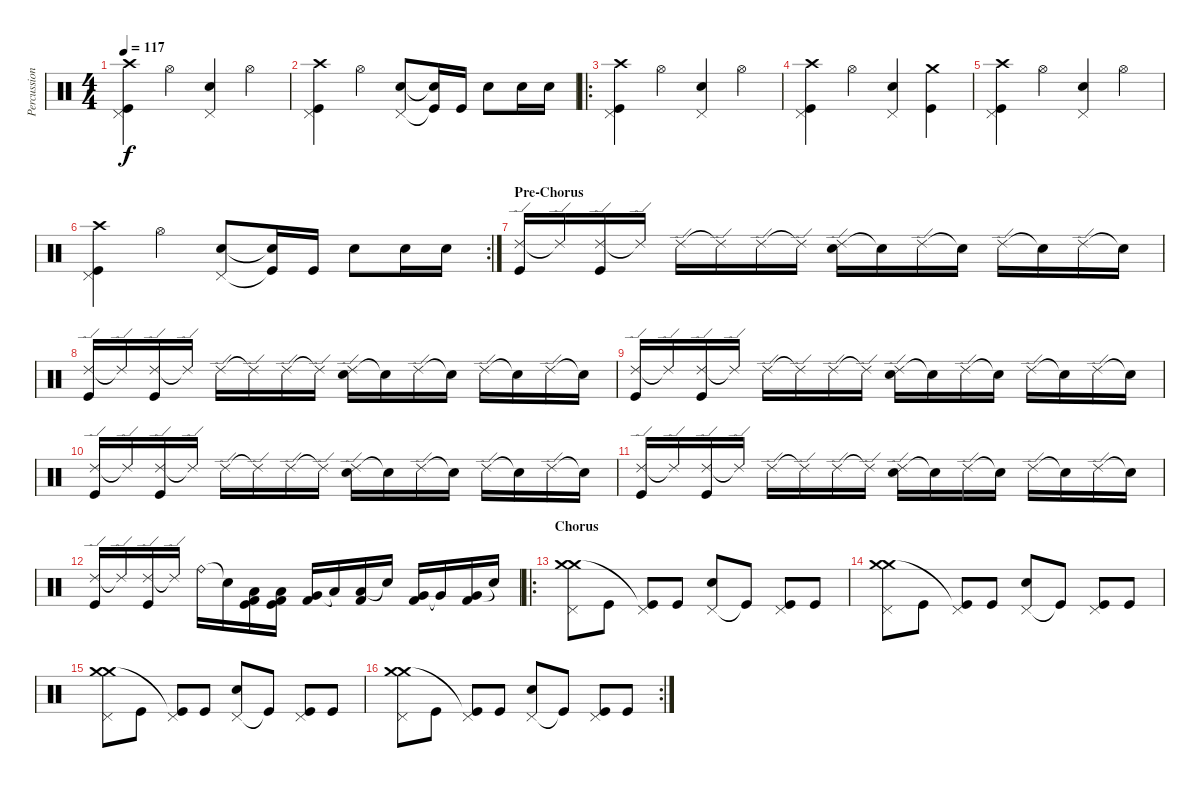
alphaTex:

\track ("Percussions" "Percussion") {instrument percussion}
\staff {score}
\articulation defaults
\ts (4 4)
\tempo 117
\clef neutral
\ks c
("Crash high (hit)" "Kick (hit)" "Pedal Hi-Hat (hit)").4{dy f} "Hi-Hat (open)".4 ("Pedal Hi-Hat (hit)" "Electric Snare (hit)").4 "Hi-Hat (open)".4 |
("Crash high (hit)" "Kick (hit)" "Pedal Hi-Hat (hit)").4 "Hi-Hat (open)".4 ("Pedal Hi-Hat (hit)" "Electric Snare (hit)").8 ("Kick (hit)"{t} "Snare (hit)"{t}).16 "Kick (hit)".16 "Electric Snare (hit)".8 "Electric Snare (hit)".16 "Electric Snare (hit)".16 |
\ro
("Crash high (hit)" "Kick (hit)" "Pedal Hi-Hat (hit)").4 "Hi-Hat (open)".4 ("Pedal Hi-Hat (hit)" "Electric Snare (hit)").4 "Hi-Hat (open)".4 |
("Crash high (hit)" "Kick (hit)" "Pedal Hi-Hat (hit)").4 "Hi-Hat (open)".4 ("Pedal Hi-Hat (hit)" "Electric Snare (hit)").4 ("Crash medium (hit)" "Kick (hit)").4 |
("Crash high (hit)" "Kick (hit)" "Pedal Hi-Hat (hit)").4 "Hi-Hat (open)".4 ("Pedal Hi-Hat (hit)" "Electric Snare (hit)").4 "Hi-Hat (open)".4 |
\rc 2
("Crash high (hit)" "Kick (hit)" "Pedal Hi-Hat (hit)").4 "Hi-Hat (open)".4 ("Pedal Hi-Hat (hit)" "Electric Snare (hit)").8 ("Kick (hit)"{t} "Snare (hit)"{t}).16 "Kick (hit)".16 "Electric Snare (hit)".8 "Electric Snare (hit)".16 "Electric Snare (hit)".16 |
\section ("" "Pre-Chorus")
("Ride (edge) 2" "Kick (hit)").16 "Ride (edge) 2"{t}.16 ("Ride (edge) 2" "Kick (hit)").16 "Ride (edge) 2"{t}.16 "Ride (edge) 2".16 "Ride (edge) 2"{t}.16 "Ride (edge) 2".16 "Ride (edge) 2"{t}.16 ("Ride (edge) 2" "Electric Snare (hit)").16 "Snare (hit)"{t}.16 "Ride (edge) 2".16 "Snare (hit)"{t}.16 "Ride (edge) 2".16 "Snare (hit)"{t}.16 "Ride (edge) 2".16 "Snare (hit)"{t}.16 |
("Ride (edge) 2" "Kick (hit)").16 "Ride (edge) 2"{t}.16 ("Ride (edge) 2" "Kick (hit)").16 "Ride (edge) 2"{t}.16 "Ride (edge) 2".16 "Ride (edge) 2"{t}.16 "Ride (edge) 2".16 "Ride (edge) 2"{t}.16 ("Ride (edge) 2" "Electric Snare (hit)").16 "Snare (hit)"{t}.16 "Ride (edge) 2".16 "Snare (hit)"{t}.16 "Ride (edge) 2".16 "Snare (hit)"{t}.16 "Ride (edge) 2".16 "Snare (hit)"{t}.16 |
("Ride (edge) 2" "Kick (hit)").16 "Ride (edge) 2"{t}.16 ("Ride (edge) 2" "Kick (hit)").16 "Ride (edge) 2"{t}.16 "Ride (edge) 2".16 "Ride (edge) 2"{t}.16 "Ride (edge) 2".16 "Ride (edge) 2"{t}.16 ("Ride (edge) 2" "Electric Snare (hit)").16 "Snare (hit)"{t}.16 "Ride (edge) 2".16 "Snare (hit)"{t}.16 "Ride (edge) 2".16 "Snare (hit)"{t}.16 "Ride (edge) 2".16 "Snare (hit)"{t}.16 |
("Ride (edge) 2" "Kick (hit)").16 "Ride (edge) 2"{t}.16 ("Ride (edge) 2" "Kick (hit)").16 "Ride (edge) 2"{t}.16 "Ride (edge) 2".16 "Ride (edge) 2"{t}.16 "Ride (edge) 2".16 "Ride (edge) 2"{t}.16 ("Ride (edge) 2" "Electric Snare (hit)").16 "Snare (hit)"{t}.16 "Ride (edge) 2".16 "Snare (hit)"{t}.16 "Ride (edge) 2".16 "Snare (hit)"{t}.16 "Ride (edge) 2".16 "Snare (hit)"{t}.16 |
("Ride (edge) 2" "Kick (hit)").16 "Ride (edge) 2"{t}.16 ("Ride (edge) 2" "Kick (hit)").16 "Ride (edge) 2"{t}.16 "Ride (edge) 2".16 "Ride (edge) 2"{t}.16 "Ride (edge) 2".16 "Ride (edge) 2"{t}.16 ("Ride (edge) 2" "Electric Snare (hit)").16 "Snare (hit)"{t}.16 "Ride (edge) 2".16 "Snare (hit)"{t}.16 "Ride (edge) 2".16 "Snare (hit)"{t}.16 "Ride (edge) 2".16 "Snare (hit)"{t}.16 |
("Ride (edge) 2" "Kick (hit)").16 "Ride (edge) 2"{t}.16 ("Ride (edge) 2" "Kick (hit)").16 "Ride (edge) 2"{t}.16 "Ride (bell)".16 "Snare (hit)"{t}.16 ("Low Floor Tom (hit)" "Kick (hit) 2" "Kick (hit)").16 ("Low Floor Tom (hit)" "Kick (hit) 2" "Kick (hit)").16 ("Very Low Tom (hit)" "Kick (hit) 2").16 "Low Tom (hit)"{t}.16 ("Low Tom (hit)" "Kick (hit) 2").16 "Snare (hit)"{t}.16 ("Very Low Tom (hit)" "Kick (hit) 2").16 "Very Low Tom (hit)"{t}.16 ("Very Low Tom (hit)" "Kick (hit) 2").16 "Snare (hit)"{t}.16 |
\ro
\section ("" "Chorus")
("Crash medium (hit)" "Crash medium (hit)" "Pedal Hi-Hat (hit)").8 "Kick (hit)".8 ("Pedal Hi-Hat (hit)" "Kick (hit)"{t}).8 "Kick (hit)".8 ("Pedal Hi-Hat (hit)" "Electric Snare (hit)").8 "Kick (hit)"{t}.8 ("Pedal Hi-Hat (hit)" "Kick (hit)").8 "Kick (hit)".8 |
("Crash medium (hit)" "Crash medium (hit)" "Pedal Hi-Hat (hit)").8 "Kick (hit)".8 ("Pedal Hi-Hat (hit)" "Kick (hit)"{t}).8 "Kick (hit)".8 ("Pedal Hi-Hat (hit)" "Electric Snare (hit)").8 "Kick (hit)"{t}.8 ("Pedal Hi-Hat (hit)" "Kick (hit)").8 "Kick (hit)".8 |
("Crash medium (hit)" "Crash medium (hit)" "Pedal Hi-Hat (hit)").8 "Kick (hit)".8 ("Pedal Hi-Hat (hit)" "Kick (hit)"{t}).8 "Kick (hit)".8 ("Pedal Hi-Hat (hit)" "Electric Snare (hit)").8 "Kick (hit)"{t}.8 ("Pedal Hi-Hat (hit)" "Kick (hit)").8 "Kick (hit)".8 |
\rc 2
("Crash medium (hit)" "Crash medium (hit)" "Pedal Hi-Hat (hit)").8 "Kick (hit)".8 ("Pedal Hi-Hat (hit)" "Kick (hit)"{t}).8 "Kick (hit)".8 ("Pedal Hi-Hat (hit)" "Electric Snare (hit)").8 "Kick (hit)"{t}.8 ("Pedal Hi-Hat (hit)" "Kick (hit)").8 "Kick (hit)".8
